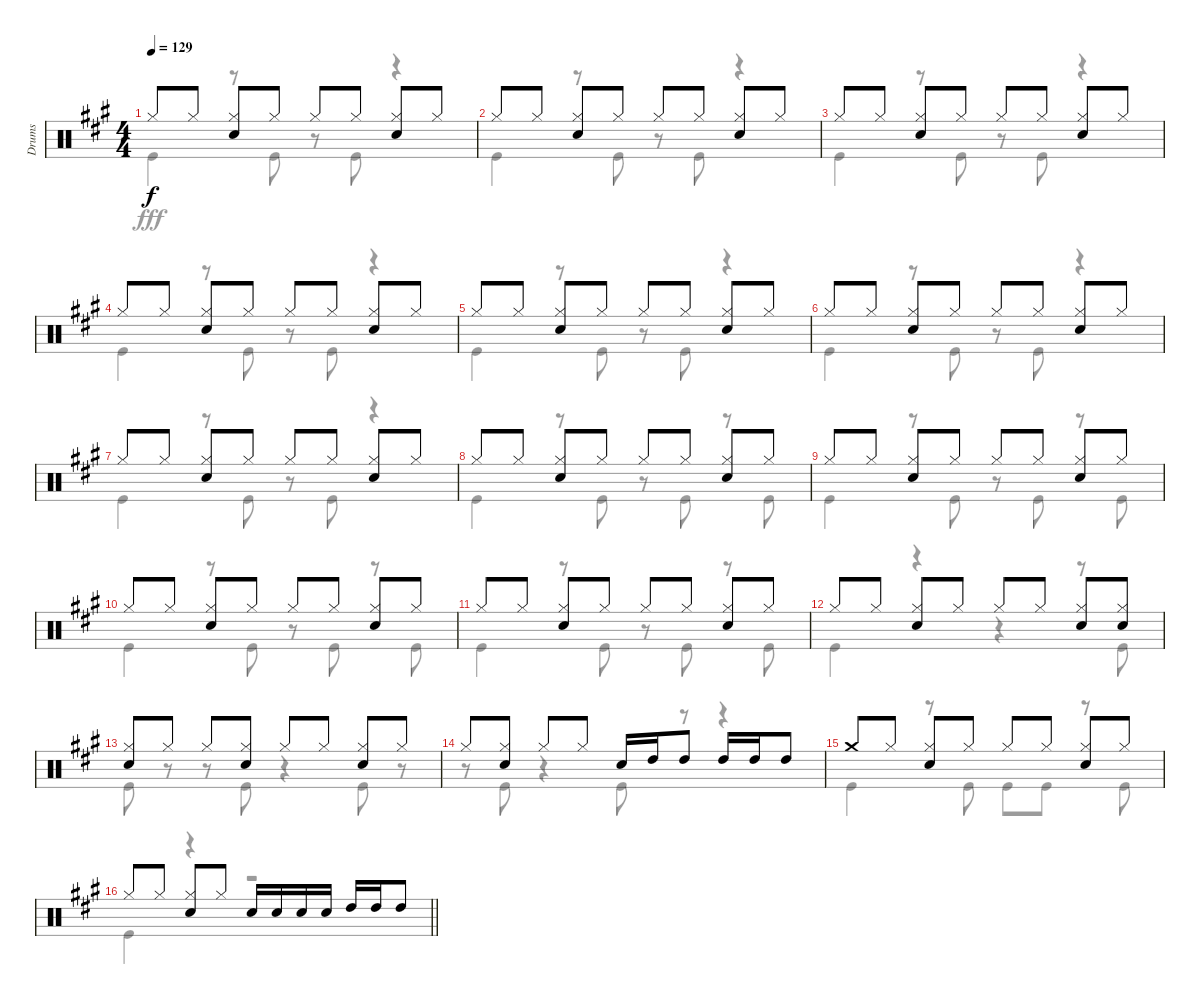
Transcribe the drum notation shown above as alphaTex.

\track ("Drums" "Drums") {instrument percussion}
\staff {score}
\articulation defaults
\voice
\ts (4 4)
\tempo 129
\clef neutral
\ks a "Hi-Hat (closed)".8{dy f} "Hi-Hat (closed)".8
("Hi-Hat (closed)" "Snare (hit) 2").8 "Hi-Hat (closed)".8 "Hi-Hat (closed)".8 "Hi-Hat (closed)".8 ("Hi-Hat (closed)" "Snare (hit) 2").8 "Hi-Hat (closed)".8 |
"Hi-Hat (closed)".8 "Hi-Hat (closed)".8 ("Hi-Hat (closed)" "Snare (hit) 2").8 "Hi-Hat (closed)".8 "Hi-Hat (closed)".8 "Hi-Hat (closed)".8 ("Hi-Hat (closed)" "Snare (hit) 2").8 "Hi-Hat (closed)".8 |
"Hi-Hat (closed)".8 "Hi-Hat (closed)".8 ("Hi-Hat (closed)" "Snare (hit) 2").8 "Hi-Hat (closed)".8 "Hi-Hat (closed)".8 "Hi-Hat (closed)".8 ("Hi-Hat (closed)" "Snare (hit) 2").8 "Hi-Hat (closed)".8 |
"Hi-Hat (closed)".8 "Hi-Hat (closed)".8 ("Hi-Hat (closed)" "Snare (hit) 2").8 "Hi-Hat (closed)".8 "Hi-Hat (closed)".8 "Hi-Hat (closed)".8 ("Hi-Hat (closed)" "Snare (hit) 2").8 "Hi-Hat (closed)".8 |
"Hi-Hat (closed)".8 "Hi-Hat (closed)".8 ("Hi-Hat (closed)" "Snare (hit) 2").8 "Hi-Hat (closed)".8 "Hi-Hat (closed)".8 "Hi-Hat (closed)".8 ("Hi-Hat (closed)" "Snare (hit) 2").8 "Hi-Hat (closed)".8 |
"Hi-Hat (closed)".8 "Hi-Hat (closed)".8 ("Hi-Hat (closed)" "Snare (hit) 2").8 "Hi-Hat (closed)".8 "Hi-Hat (closed)".8 "Hi-Hat (closed)".8 ("Hi-Hat (closed)" "Snare (hit) 2").8 "Hi-Hat (closed)".8 |
"Hi-Hat (closed)".8 "Hi-Hat (closed)".8 ("Hi-Hat (closed)" "Snare (hit) 2").8 "Hi-Hat (closed)".8 "Hi-Hat (closed)".8 "Hi-Hat (closed)".8 ("Hi-Hat (closed)" "Snare (hit) 2").8 "Hi-Hat (closed)".8 |
"Hi-Hat (closed)".8 "Hi-Hat (closed)".8 ("Hi-Hat (closed)" "Snare (hit) 2").8 "Hi-Hat (closed)".8 "Hi-Hat (closed)".8 "Hi-Hat (closed)".8 ("Hi-Hat (closed)" "Snare (hit) 2").8 "Hi-Hat (closed)".8 |
"Hi-Hat (closed)".8 "Hi-Hat (closed)".8 ("Hi-Hat (closed)" "Snare (hit) 2").8 "Hi-Hat (closed)".8 "Hi-Hat (closed)".8 "Hi-Hat (closed)".8 ("Hi-Hat (closed)" "Snare (hit) 2").8 "Hi-Hat (closed)".8 |
"Hi-Hat (closed)".8 "Hi-Hat (closed)".8 ("Hi-Hat (closed)" "Snare (hit) 2").8 "Hi-Hat (closed)".8 "Hi-Hat (closed)".8 "Hi-Hat (closed)".8 ("Hi-Hat (closed)" "Snare (hit) 2").8 "Hi-Hat (closed)".8 |
"Hi-Hat (closed)".8 "Hi-Hat (closed)".8 ("Hi-Hat (closed)" "Snare (hit) 2").8 "Hi-Hat (closed)".8 "Hi-Hat (closed)".8 "Hi-Hat (closed)".8 ("Hi-Hat (closed)" "Snare (hit) 2").8 "Hi-Hat (closed)".8 |
"Hi-Hat (closed)".8 "Hi-Hat (closed)".8 ("Hi-Hat (closed)" "Snare (hit) 2").8 "Hi-Hat (closed)".8 "Hi-Hat (closed)".8 "Hi-Hat (closed)".8 ("Hi-Hat (closed)" "Snare (hit) 2").8 ("Hi-Hat (closed)" "Snare (hit) 2").8 |
("Hi-Hat (closed)" "Snare (hit) 2").8 "Hi-Hat (closed)".8 "Hi-Hat (closed)".8 ("Hi-Hat (closed)" "Snare (hit) 2").8 "Hi-Hat (closed)".8 "Hi-Hat (closed)".8 ("Hi-Hat (closed)" "Snare (hit) 2").8 "Hi-Hat (closed)".8 |
"Hi-Hat (closed)".8 ("Hi-Hat (closed)" "Snare (hit) 2").8 "Hi-Hat (closed)".8 "Hi-Hat (closed)".8 "Snare (hit) 2".16 "High Tom (hit)".16 "High Tom (hit)".8 "High Tom (hit)".16 "High Tom (hit)".16 "High Tom (hit)".8 |
"Crash medium (hit)".8 "Hi-Hat (closed)".8 ("Hi-Hat (closed)" "Snare (hit) 2").8 "Hi-Hat (closed)".8 "Hi-Hat (closed)".8 "Hi-Hat (closed)".8 ("Hi-Hat (closed)" "Snare (hit) 2").8 "Hi-Hat (closed)".8 |
\barLineRight lightlight "Hi-Hat (closed)".8 "Hi-Hat (closed)".8
("Hi-Hat (closed)" "Snare (hit) 2").8 "Hi-Hat (closed)".8 "Snare (hit) 2".16 "Snare (hit) 2".16 "Snare (hit) 2".16 "Snare (hit) 2".16 "High Tom (hit)".16 "High Tom (hit)".16 "High Tom (hit)".8
\voice
\clef neutral
\ottava regular
\simile none
\ks a "Kick (hit)".4{dy fff}
r.8 "Kick (hit)".8 r.8 "Kick (hit)".8 r.4 |
"Kick (hit)".4 r.8 "Kick (hit)".8 r.8 "Kick (hit)".8 r.4 |
"Kick (hit)".4 r.8 "Kick (hit)".8 r.8 "Kick (hit)".8 r.4 |
"Kick (hit)".4 r.8 "Kick (hit)".8 r.8 "Kick (hit)".8 r.4 |
"Kick (hit)".4 r.8 "Kick (hit)".8 r.8 "Kick (hit)".8 r.4 |
"Kick (hit)".4 r.8 "Kick (hit)".8 r.8 "Kick (hit)".8 r.4 |
"Kick (hit)".4 r.8 "Kick (hit)".8 r.8 "Kick (hit)".8 r.4 |
"Kick (hit)".4 r.8 "Kick (hit)".8 r.8 "Kick (hit)".8 r.8 "Kick (hit)".8 |
"Kick (hit)".4 r.8 "Kick (hit)".8 r.8 "Kick (hit)".8 r.8 "Kick (hit)".8 |
"Kick (hit)".4 r.8 "Kick (hit)".8 r.8 "Kick (hit)".8 r.8 "Kick (hit)".8 |
"Kick (hit)".4 r.8 "Kick (hit)".8 r.8 "Kick (hit)".8 r.8 "Kick (hit)".8 |
"Kick (hit)".4 r.4 r.4 r.8 "Kick (hit)".8 |
"Kick (hit)".8 r.8 r.8 "Kick (hit)".8 r.4 "Kick (hit)".8 r.8 |
r.8 "Kick (hit)".8 r.4 "Kick (hit)".8 r.8 r.4 |
"Kick (hit)".4 r.8 "Kick (hit)".8 "Kick (hit)".8 "Kick (hit)".8 r.8 "Kick (hit)".8 |
\barLineRight lightlight "Kick (hit)".4
r.4 r.2
